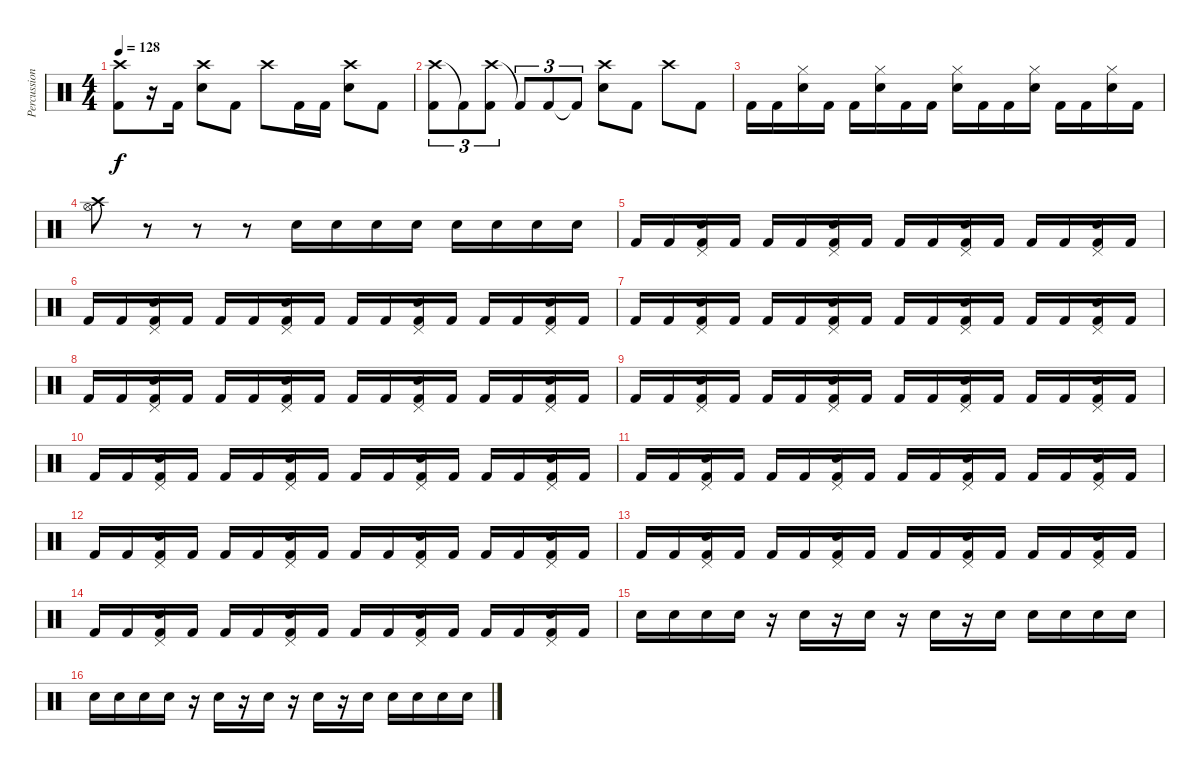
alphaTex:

\track ("Percussion" "Percussion") {instrument percussion}
\staff {score}
\articulation defaults
\ts (4 4)
\tempo 128
\clef neutral
\ks c
("Crash high (hit)" "Kick (hit) 2").8{dy f} r.16 "Kick (hit) 2".16 ("Crash high (hit)" "Snare (hit) 2").8 "Kick (hit) 2".8 "Crash high (hit)".8 "Kick (hit) 2".16 "Kick (hit) 2".16 ("Crash high (hit)" "Snare (hit) 2").8 "Kick (hit) 2".8 |
("Crash high (hit)" "Kick (hit) 2").8{tu (3 2)} "Kick (hit) 2"{t}.8{tu (3 2)} ("Crash high (hit)" "Kick (hit) 2").8{tu (3 2)} "Kick (hit) 2"{t}.8{tu (3 2)} "Kick (hit) 2".8{tu (3 2)} "Kick (hit) 2"{t}.8{tu (3 2)} ("Crash high (hit)" "Snare (hit) 2").8 "Kick (hit) 2".8 "Crash high (hit)".8 "Kick (hit) 2".8 |
"Kick (hit) 2".16 "Kick (hit) 2".16 ("Hi-Hat (closed)" "Snare (hit) 2").16 "Kick (hit) 2".16 "Kick (hit) 2".16 ("Hi-Hat (closed)" "Snare (hit) 2").16 "Kick (hit) 2".16 "Kick (hit) 2".16 ("Hi-Hat (closed)" "Snare (hit) 2").16 "Kick (hit) 2".16 "Kick (hit) 2".16 ("Hi-Hat (closed)" "Snare (hit) 2").16 "Kick (hit) 2".16 "Kick (hit) 2".16 ("Hi-Hat (closed)" "Snare (hit) 2").16 "Kick (hit) 2".16 |
("Crash high (hit)" "Hi-Hat (open)").8 r.8 r.8 r.8 "Snare (hit) 2".16 "Snare (hit) 2".16 "Snare (hit) 2".16 "Snare (hit) 2".16 "Snare (hit) 2".16 "Snare (hit) 2".16 "Snare (hit) 2".16 "Snare (hit) 2".16 |
"Kick (hit) 2".16 "Kick (hit) 2".16 ("Pedal Hi-Hat (hit)" "Snare (hit) 2" "Kick (hit) 2").16 "Kick (hit) 2".16 "Kick (hit) 2".16 "Kick (hit) 2".16 ("Pedal Hi-Hat (hit)" "Snare (hit) 2" "Kick (hit) 2").16 "Kick (hit) 2".16 "Kick (hit) 2".16 "Kick (hit) 2".16 ("Pedal Hi-Hat (hit)" "Snare (hit) 2" "Kick (hit) 2").16 "Kick (hit) 2".16 "Kick (hit) 2".16 "Kick (hit) 2".16 ("Pedal Hi-Hat (hit)" "Snare (hit) 2" "Kick (hit) 2").16 "Kick (hit) 2".16 |
"Kick (hit) 2".16 "Kick (hit) 2".16 ("Pedal Hi-Hat (hit)" "Snare (hit) 2" "Kick (hit) 2").16 "Kick (hit) 2".16 "Kick (hit) 2".16 "Kick (hit) 2".16 ("Pedal Hi-Hat (hit)" "Snare (hit) 2" "Kick (hit) 2").16 "Kick (hit) 2".16 "Kick (hit) 2".16 "Kick (hit) 2".16 ("Pedal Hi-Hat (hit)" "Snare (hit) 2" "Kick (hit) 2").16 "Kick (hit) 2".16 "Kick (hit) 2".16 "Kick (hit) 2".16 ("Pedal Hi-Hat (hit)" "Snare (hit) 2" "Kick (hit) 2").16 "Kick (hit) 2".16 |
"Kick (hit) 2".16 "Kick (hit) 2".16 ("Pedal Hi-Hat (hit)" "Snare (hit) 2" "Kick (hit) 2").16 "Kick (hit) 2".16 "Kick (hit) 2".16 "Kick (hit) 2".16 ("Pedal Hi-Hat (hit)" "Snare (hit) 2" "Kick (hit) 2").16 "Kick (hit) 2".16 "Kick (hit) 2".16 "Kick (hit) 2".16 ("Pedal Hi-Hat (hit)" "Snare (hit) 2" "Kick (hit) 2").16 "Kick (hit) 2".16 "Kick (hit) 2".16 "Kick (hit) 2".16 ("Pedal Hi-Hat (hit)" "Snare (hit) 2" "Kick (hit) 2").16 "Kick (hit) 2".16 |
"Kick (hit) 2".16 "Kick (hit) 2".16 ("Pedal Hi-Hat (hit)" "Snare (hit) 2" "Kick (hit) 2").16 "Kick (hit) 2".16 "Kick (hit) 2".16 "Kick (hit) 2".16 ("Pedal Hi-Hat (hit)" "Snare (hit) 2" "Kick (hit) 2").16 "Kick (hit) 2".16 "Kick (hit) 2".16 "Kick (hit) 2".16 ("Pedal Hi-Hat (hit)" "Snare (hit) 2" "Kick (hit) 2").16 "Kick (hit) 2".16 "Kick (hit) 2".16 "Kick (hit) 2".16 ("Pedal Hi-Hat (hit)" "Snare (hit) 2" "Kick (hit) 2").16 "Kick (hit) 2".16 |
"Kick (hit) 2".16 "Kick (hit) 2".16 ("Pedal Hi-Hat (hit)" "Snare (hit) 2" "Kick (hit) 2").16 "Kick (hit) 2".16 "Kick (hit) 2".16 "Kick (hit) 2".16 ("Pedal Hi-Hat (hit)" "Snare (hit) 2" "Kick (hit) 2").16 "Kick (hit) 2".16 "Kick (hit) 2".16 "Kick (hit) 2".16 ("Pedal Hi-Hat (hit)" "Snare (hit) 2" "Kick (hit) 2").16 "Kick (hit) 2".16 "Kick (hit) 2".16 "Kick (hit) 2".16 ("Pedal Hi-Hat (hit)" "Snare (hit) 2" "Kick (hit) 2").16 "Kick (hit) 2".16 |
"Kick (hit) 2".16 "Kick (hit) 2".16 ("Pedal Hi-Hat (hit)" "Snare (hit) 2" "Kick (hit) 2").16 "Kick (hit) 2".16 "Kick (hit) 2".16 "Kick (hit) 2".16 ("Pedal Hi-Hat (hit)" "Snare (hit) 2" "Kick (hit) 2").16 "Kick (hit) 2".16 "Kick (hit) 2".16 "Kick (hit) 2".16 ("Pedal Hi-Hat (hit)" "Snare (hit) 2" "Kick (hit) 2").16 "Kick (hit) 2".16 "Kick (hit) 2".16 "Kick (hit) 2".16 ("Pedal Hi-Hat (hit)" "Snare (hit) 2" "Kick (hit) 2").16 "Kick (hit) 2".16 |
"Kick (hit) 2".16 "Kick (hit) 2".16 ("Pedal Hi-Hat (hit)" "Snare (hit) 2" "Kick (hit) 2").16 "Kick (hit) 2".16 "Kick (hit) 2".16 "Kick (hit) 2".16 ("Pedal Hi-Hat (hit)" "Snare (hit) 2" "Kick (hit) 2").16 "Kick (hit) 2".16 "Kick (hit) 2".16 "Kick (hit) 2".16 ("Pedal Hi-Hat (hit)" "Snare (hit) 2" "Kick (hit) 2").16 "Kick (hit) 2".16 "Kick (hit) 2".16 "Kick (hit) 2".16 ("Pedal Hi-Hat (hit)" "Snare (hit) 2" "Kick (hit) 2").16 "Kick (hit) 2".16 |
"Kick (hit) 2".16 "Kick (hit) 2".16 ("Pedal Hi-Hat (hit)" "Snare (hit) 2" "Kick (hit) 2").16 "Kick (hit) 2".16 "Kick (hit) 2".16 "Kick (hit) 2".16 ("Pedal Hi-Hat (hit)" "Snare (hit) 2" "Kick (hit) 2").16 "Kick (hit) 2".16 "Kick (hit) 2".16 "Kick (hit) 2".16 ("Pedal Hi-Hat (hit)" "Snare (hit) 2" "Kick (hit) 2").16 "Kick (hit) 2".16 "Kick (hit) 2".16 "Kick (hit) 2".16 ("Pedal Hi-Hat (hit)" "Snare (hit) 2" "Kick (hit) 2").16 "Kick (hit) 2".16 |
"Kick (hit) 2".16 "Kick (hit) 2".16 ("Pedal Hi-Hat (hit)" "Snare (hit) 2" "Kick (hit) 2").16 "Kick (hit) 2".16 "Kick (hit) 2".16 "Kick (hit) 2".16 ("Pedal Hi-Hat (hit)" "Snare (hit) 2" "Kick (hit) 2").16 "Kick (hit) 2".16 "Kick (hit) 2".16 "Kick (hit) 2".16 ("Pedal Hi-Hat (hit)" "Snare (hit) 2" "Kick (hit) 2").16 "Kick (hit) 2".16 "Kick (hit) 2".16 "Kick (hit) 2".16 ("Pedal Hi-Hat (hit)" "Snare (hit) 2" "Kick (hit) 2").16 "Kick (hit) 2".16 |
"Kick (hit) 2".16 "Kick (hit) 2".16 ("Pedal Hi-Hat (hit)" "Snare (hit) 2" "Kick (hit) 2").16 "Kick (hit) 2".16 "Kick (hit) 2".16 "Kick (hit) 2".16 ("Pedal Hi-Hat (hit)" "Snare (hit) 2" "Kick (hit) 2").16 "Kick (hit) 2".16 "Kick (hit) 2".16 "Kick (hit) 2".16 ("Pedal Hi-Hat (hit)" "Snare (hit) 2" "Kick (hit) 2").16 "Kick (hit) 2".16 "Kick (hit) 2".16 "Kick (hit) 2".16 ("Pedal Hi-Hat (hit)" "Snare (hit) 2" "Kick (hit) 2").16 "Kick (hit) 2".16 |
"Snare (hit) 2".16 "Snare (hit) 2".16 "Snare (hit) 2".16 "Snare (hit) 2".16 r.16 "Snare (hit) 2".16 r.16 "Snare (hit) 2".16 r.16 "Snare (hit) 2".16 r.16 "Snare (hit) 2".16 "Snare (hit) 2".16 "Snare (hit) 2".16 "Snare (hit) 2".16 "Snare (hit) 2".16 |
"Snare (hit) 2".16 "Snare (hit) 2".16 "Snare (hit) 2".16 "Snare (hit) 2".16 r.16 "Snare (hit) 2".16 r.16 "Snare (hit) 2".16 r.16 "Snare (hit) 2".16 r.16 "Snare (hit) 2".16 "Snare (hit) 2".16 "Snare (hit) 2".16 "Snare (hit) 2".16 "Snare (hit) 2".16
